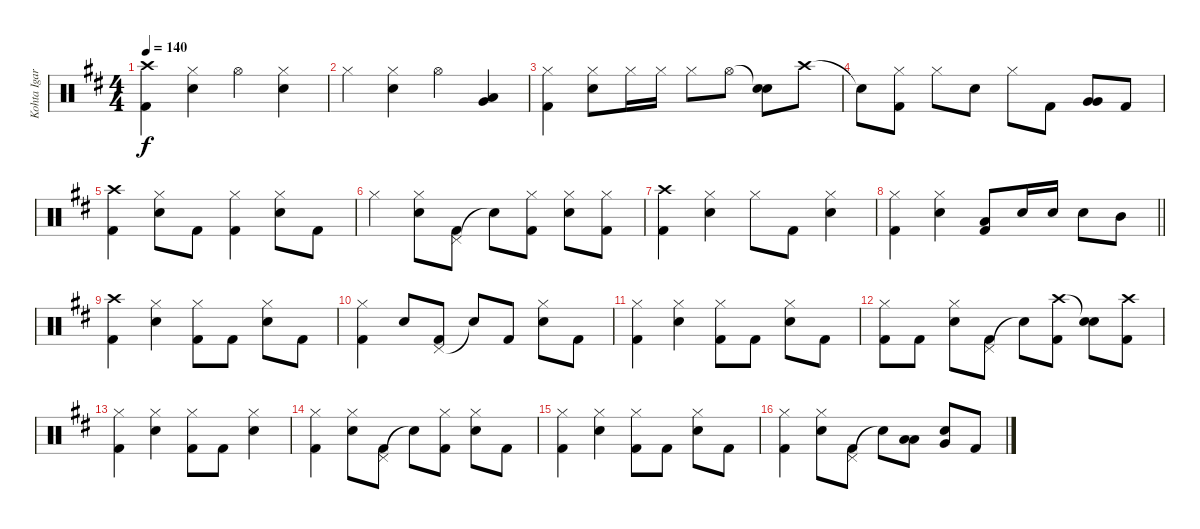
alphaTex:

\track ("Kohta Igarashi" "Kohta Igar") {instrument percussion}
\staff {score}
\articulation defaults
\ts (4 4)
\tempo 140
\clef neutral
\ks d
("Crash high (hit)" "Kick (hit) 2").4{dy f} ("Hi-Hat (closed)" "Electric Snare (hit)").4 "Hi-Hat (open)".4 ("Hi-Hat (closed)" "Electric Snare (hit)").4 |
"Hi-Hat (closed)".4 ("Hi-Hat (closed)" "Electric Snare (hit)").4 "Hi-Hat (open)".4 ("Very Low Tom (hit)" "Low Floor Tom (hit)").4 |
("Hi-Hat (closed)" "Kick (hit) 2").4 ("Hi-Hat (closed)" "Electric Snare (hit)").8 "Hi-Hat (closed)".16 "Hi-Hat (closed)".16 "Hi-Hat (closed)".8 "Hi-Hat (open)".8 ("Snare (hit)"{t} "Electric Snare (hit)").8 "Crash high (hit)".8 |
"Snare (hit)"{t}.8 ("Hi-Hat (closed)" "Kick (hit) 2").8 "Hi-Hat (closed)".8 "Electric Snare (hit)".8 "Hi-Hat (closed)".8 "Kick (hit) 2".8 ("Very Low Tom (hit)" "Very Low Tom (hit)").8 "Kick (hit) 2".8 |
("Crash high (hit)" "Kick (hit) 2").4 ("Hi-Hat (closed)" "Electric Snare (hit)").8 "Kick (hit) 2".8 ("Hi-Hat (closed)" "Kick (hit) 2").4 ("Hi-Hat (closed)" "Electric Snare (hit)").8 "Kick (hit) 2".8 |
"Hi-Hat (closed)".4 ("Hi-Hat (closed)" "Electric Snare (hit)").8 ("Pedal Hi-Hat (hit)" "Kick (hit) 2").8 "Snare (hit)"{t}.8 ("Hi-Hat (closed)" "Kick (hit) 2").8 ("Hi-Hat (closed)" "Electric Snare (hit)").8 ("Hi-Hat (closed)" "Kick (hit) 2").8 |
("Crash high (hit)" "Kick (hit) 2").4 ("Hi-Hat (closed)" "Electric Snare (hit)").4 "Hi-Hat (closed)".8 "Kick (hit) 2".8 ("Hi-Hat (closed)" "Electric Snare (hit)").4 |
\barLineRight lightlight
("Hi-Hat (closed)" "Kick (hit) 2").4 ("Hi-Hat (closed)" "Electric Snare (hit)").4 ("Low Tom (hit)" "Kick (hit) 2").8 "Electric Snare (hit)".16 "Electric Snare (hit)".16 "Electric Snare (hit)".8 "Mid Tom (hit)".8 |
("Crash high (hit)" "Kick (hit) 2").4 ("Hi-Hat (closed)" "Electric Snare (hit)").4 ("Hi-Hat (closed)" "Kick (hit) 2").8 "Kick (hit) 2".8 ("Hi-Hat (closed)" "Electric Snare (hit)").8 "Kick (hit) 2".8 |
("Hi-Hat (closed)" "Kick (hit) 2").4 "Electric Snare (hit)".8 ("Pedal Hi-Hat (hit)" "Kick (hit) 2").8 "Snare (hit)"{t}.8 "Kick (hit) 2".8 ("Hi-Hat (closed)" "Electric Snare (hit)").8 "Kick (hit) 2".8 |
("Hi-Hat (closed)" "Kick (hit) 2").4 ("Hi-Hat (closed)" "Electric Snare (hit)").4 ("Hi-Hat (closed)" "Kick (hit) 2").8 "Kick (hit) 2".8 ("Hi-Hat (closed)" "Electric Snare (hit)").8 "Kick (hit) 2".8 |
("Hi-Hat (closed)" "Kick (hit) 2").8 "Kick (hit) 2".8 ("Hi-Hat (closed)" "Electric Snare (hit)").8 ("Pedal Hi-Hat (hit)" "Kick (hit) 2").8 "Snare (hit)"{t}.8 ("Crash high (hit)" "Kick (hit) 2").8 ("Snare (hit)"{t} "Electric Snare (hit)").8 ("Crash high (hit)" "Kick (hit) 2").8 |
("Hi-Hat (closed)" "Kick (hit) 2").4 ("Hi-Hat (closed)" "Electric Snare (hit)").4 ("Hi-Hat (closed)" "Kick (hit) 2").8 "Kick (hit) 2".8 ("Hi-Hat (closed)" "Electric Snare (hit)").4 |
("Hi-Hat (closed)" "Kick (hit) 2").4 ("Hi-Hat (closed)" "Electric Snare (hit)").8 ("Pedal Hi-Hat (hit)" "Kick (hit) 2").8 "Snare (hit)"{t}.8 ("Hi-Hat (closed)" "Kick (hit) 2").8 ("Hi-Hat (closed)" "Electric Snare (hit)").8 "Kick (hit) 2".8 |
("Hi-Hat (closed)" "Kick (hit) 2").4 ("Hi-Hat (closed)" "Electric Snare (hit)").4 ("Hi-Hat (closed)" "Kick (hit) 2").8 "Kick (hit) 2".8 ("Hi-Hat (closed)" "Electric Snare (hit)").8 "Kick (hit) 2".8 |
("Hi-Hat (closed)" "Kick (hit) 2").4 ("Hi-Hat (closed)" "Electric Snare (hit)").8 ("Pedal Hi-Hat (hit)" "Kick (hit) 2").8 "Snare (hit)"{t}.8 ("Low Tom (hit)" "Low Tom (hit)").8 ("Very Low Tom (hit)" "Electric Snare (hit)").8 "Kick (hit) 2".8
